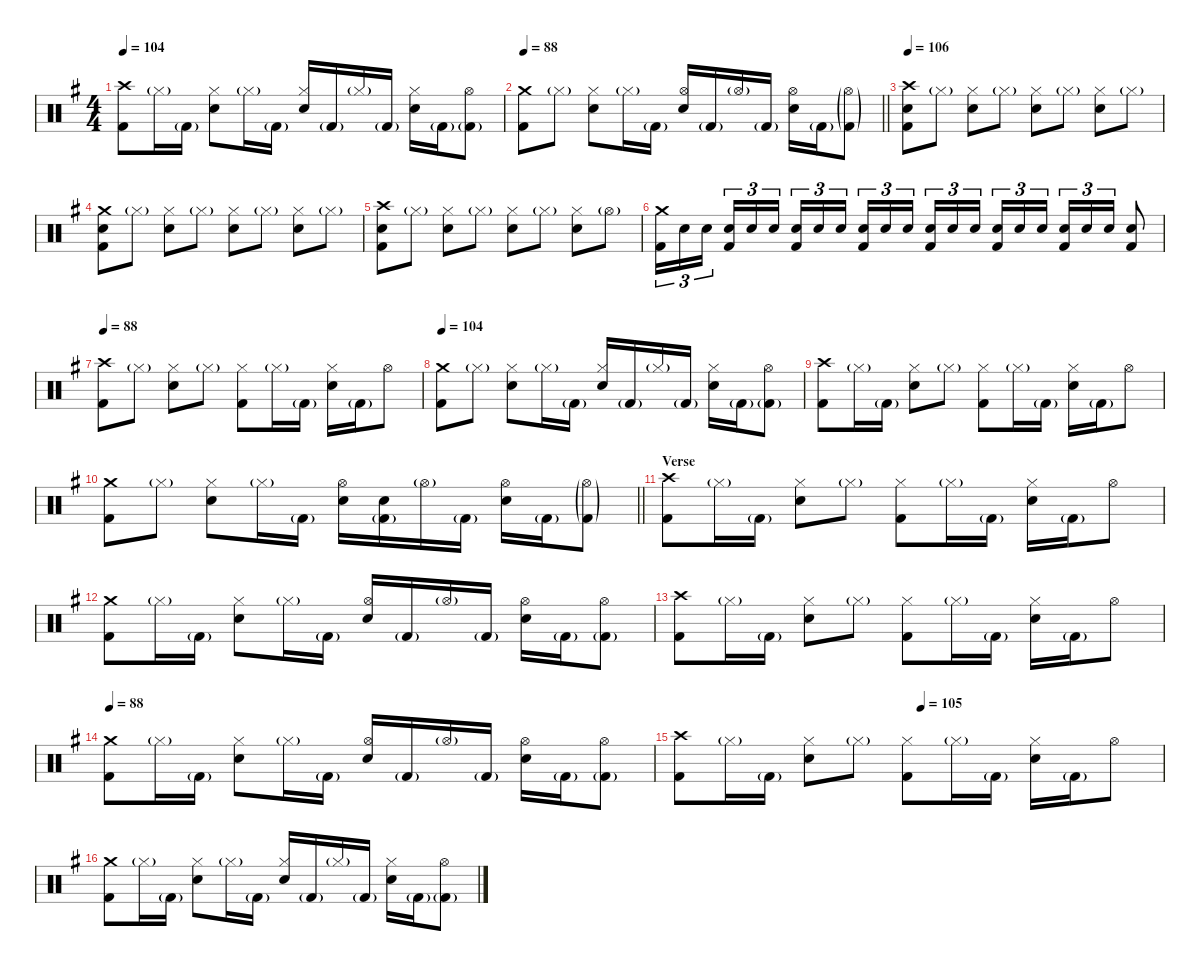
\defaultSystemsLayout 4
\hideDynamics
\bracketExtendMode nobrackets
\singleTrackTrackNamePolicy hidden
\multiTrackTrackNamePolicy hidden
\firstSystemTrackNameMode fullname
\firstSystemTrackNameOrientation horizontal
\otherSystemsTrackNameOrientation horizontal
\track ("Bill" "drm.") {instrument percussion}
\staff {score}
\articulation defaults
\ts (4 4)
\tempo 104
\clef neutral
\ks eminor
("Crash high (hit)"{acc forcenatural} "Kick (hit) 2"{acc forcenatural}).8{dy f beam Down} "Hi-Hat (closed)"{g acc forcenatural}.16{dy mf beam Down} "Kick (hit) 2"{g acc forcenatural}.16{beam Down} ("Hi-Hat (closed)"{acc forcenatural} "Snare (hit) 2"{acc forcenatural}).8{dy f beam Down} "Hi-Hat (closed)"{g acc forcenatural}.16{dy mf beam Down} "Kick (hit) 2"{g acc forcenatural}.16{beam Down} ("Hi-Hat (closed)"{acc forcenatural} "Snare (hit) 2"{acc forcenatural}).16{dy f beam Up} "Kick (hit) 2"{g acc forcenatural}.16{dy mf beam Up} "Hi-Hat (closed)"{g acc forcenatural}.16{beam Up} "Kick (hit) 2"{g acc forcenatural}.16{beam Up} ("Hi-Hat (closed)"{acc forcenatural} "Snare (hit) 2"{acc forcenatural}).16{dy f beam Down} "Kick (hit) 2"{g acc forcenatural}.16{dy mf beam Down} ("Hi-Hat (open)"{acc forcenatural} "Kick (hit) 2"{g acc forcenatural}).8{dy f beam Down} |
\tempo 88
\barLineRight lightlight
("Crash medium (hit)"{acc forcenatural} "Kick (hit) 2"{acc forcenatural}).8{beam Down} "Hi-Hat (closed)"{g acc forcenatural}.8{dy mf beam Down} ("Hi-Hat (closed)"{acc forcenatural} "Snare (hit) 2"{acc forcenatural}).8{dy f beam Down} "Hi-Hat (closed)"{g acc forcenatural}.16{dy mf beam Down} "Kick (hit) 2"{g acc forcenatural}.16{beam Down} ("Hi-Hat (open)"{acc forcenatural} "Snare (hit) 2"{acc forcenatural}).16{dy f beam Up} "Kick (hit) 2"{g acc forcenatural}.16{dy mf beam Up} "Hi-Hat (open)"{g acc forcenatural}.16{beam Up} "Kick (hit) 2"{g acc forcenatural}.16{beam Up} ("Hi-Hat (open)"{acc forcenatural} "Snare (hit) 2"{acc forcenatural}).16{dy f beam Down} "Kick (hit) 2"{g acc forcenatural}.16{dy mf beam Down} ("Hi-Hat (open)"{g acc forcenatural} "Kick (hit) 2"{g acc forcenatural}).8{beam Down} |
\section ("" "")
\tempo 106
("Crash high (hit)"{acc forcenatural} "Snare (hit) 2"{acc forcenatural} "Kick (hit) 2"{acc forcenatural}).8{dy f beam Down} "Hi-Hat (closed)"{g acc forcenatural}.8{dy mf beam Down} ("Hi-Hat (closed)"{acc forcenatural} "Snare (hit) 2"{acc forcenatural}).8{dy f beam Down} "Hi-Hat (closed)"{g acc forcenatural}.8{dy mf beam Down} ("Hi-Hat (closed)"{acc forcenatural} "Snare (hit) 2"{acc forcenatural}).8{dy f beam Down} "Hi-Hat (closed)"{g acc forcenatural}.8{dy mf beam Down} ("Hi-Hat (closed)"{acc forcenatural} "Snare (hit) 2"{acc forcenatural}).8{dy f beam Down} "Hi-Hat (closed)"{g acc forcenatural}.8{dy mf beam Down} |
("Crash medium (hit)"{acc forcenatural} "Snare (hit) 2"{acc forcenatural} "Kick (hit) 2"{acc forcenatural}).8{dy f beam Down} "Hi-Hat (closed)"{g acc forcenatural}.8{dy mf beam Down} ("Hi-Hat (closed)"{acc forcenatural} "Snare (hit) 2"{acc forcenatural}).8{dy f beam Down} "Hi-Hat (closed)"{g acc forcenatural}.8{dy mf beam Down} ("Hi-Hat (closed)"{acc forcenatural} "Snare (hit) 2"{acc forcenatural}).8{dy f beam Down} "Hi-Hat (closed)"{g acc forcenatural}.8{dy mf beam Down} ("Hi-Hat (closed)"{acc forcenatural} "Snare (hit) 2"{acc forcenatural}).8{dy f beam Down} "Hi-Hat (closed)"{g acc forcenatural}.8{dy mf beam Down} |
("Crash high (hit)"{acc forcenatural} "Snare (hit) 2"{acc forcenatural} "Kick (hit) 2"{acc forcenatural}).8{dy f beam Down} "Hi-Hat (closed)"{g acc forcenatural}.8{dy mf beam Down} ("Hi-Hat (closed)"{acc forcenatural} "Snare (hit) 2"{acc forcenatural}).8{dy f beam Down} "Hi-Hat (closed)"{g acc forcenatural}.8{dy mf beam Down} ("Hi-Hat (closed)"{acc forcenatural} "Snare (hit) 2"{acc forcenatural}).8{dy f beam Down} "Hi-Hat (closed)"{g acc forcenatural}.8{dy mf beam Down} ("Hi-Hat (closed)"{acc forcenatural} "Snare (hit) 2"{acc forcenatural}).8{dy f beam Down} "Hi-Hat (open)"{g acc forcenatural}.8{dy mf beam Down} |
("Crash medium (hit)"{acc forcenatural} "Kick (hit) 2"{acc forcenatural}).16{tu (3 2) dy f beam Down} "Snare (hit) 2"{acc forcenatural}.16{tu (3 2) dy p beam Down} "Snare (hit) 2"{acc forcenatural}.16{tu (3 2) beam Down} ("Snare (hit) 2"{acc forcenatural} "Kick (hit) 2"{acc forcenatural}).16{tu (3 2) dy mp beam Up} "Snare (hit) 2"{acc forcenatural}.16{tu (3 2) dy p beam Up} "Snare (hit) 2"{acc forcenatural}.16{tu (3 2) beam Up} ("Snare (hit) 2"{acc forcenatural} "Kick (hit) 2"{acc forcenatural}).16{tu (3 2) dy mf beam Up} "Snare (hit) 2"{acc forcenatural}.16{tu (3 2) dy p beam Up} "Snare (hit) 2"{acc forcenatural}.16{tu (3 2) beam Up} ("Snare (hit) 2"{acc forcenatural} "Kick (hit) 2"{acc forcenatural}).16{tu (3 2) dy mf beam Up} "Snare (hit) 2"{acc forcenatural}.16{tu (3 2) dy p beam Up} "Snare (hit) 2"{acc forcenatural}.16{tu (3 2) dy mp beam Up} ("Snare (hit) 2"{acc forcenatural} "Kick (hit) 2"{acc forcenatural}).16{tu (3 2) dy f beam Up} "Snare (hit) 2"{acc forcenatural}.16{tu (3 2) dy p beam Up} "Snare (hit) 2"{acc forcenatural}.16{tu (3 2) dy mp beam Up} ("Snare (hit) 2"{acc forcenatural} "Kick (hit) 2"{acc forcenatural}).16{tu (3 2) dy f beam Up} "Snare (hit) 2"{acc forcenatural}.16{tu (3 2) dy mp beam Up} "Snare (hit) 2"{acc forcenatural}.16{tu (3 2) dy mf beam Up} ("Snare (hit) 2"{acc forcenatural} "Kick (hit) 2"{acc forcenatural}).16{tu (3 2) dy ff beam Up} "Snare (hit) 2"{acc forcenatural}.16{tu (3 2) dy mf beam Up} "Snare (hit) 2"{acc forcenatural}.16{tu (3 2) dy f beam Up} ("Snare (hit) 2"{acc forcenatural} "Kick (hit) 2"{acc forcenatural}).8{dy ff beam Up} |
\tempo 88
("Crash high (hit)"{acc forcenatural} "Kick (hit) 2"{acc forcenatural}).8{dy f beam Down} "Hi-Hat (closed)"{g acc forcenatural}.8{dy mf beam Down} ("Hi-Hat (closed)"{acc forcenatural} "Snare (hit) 2"{acc forcenatural}).8{dy f beam Down} "Hi-Hat (closed)"{g acc forcenatural}.8{dy mf beam Down} ("Hi-Hat (closed)"{acc forcenatural} "Kick (hit) 2"{acc forcenatural}).8{dy f beam Down} "Hi-Hat (closed)"{g acc forcenatural}.16{dy mf beam Down} "Kick (hit) 2"{g acc forcenatural}.16{beam Down} ("Hi-Hat (closed)"{acc forcenatural} "Snare (hit) 2"{acc forcenatural}).16{dy f beam Down} "Kick (hit) 2"{g acc forcenatural}.16{dy mf beam Down} "Hi-Hat (open)"{acc forcenatural}.8{beam Down} |
\tempo 104
("Crash medium (hit)"{acc forcenatural} "Kick (hit) 2"{acc forcenatural}).8{dy f beam Down} "Hi-Hat (closed)"{g acc forcenatural}.8{dy mf beam Down} ("Hi-Hat (closed)"{acc forcenatural} "Snare (hit) 2"{acc forcenatural}).8{dy f beam Down} "Hi-Hat (closed)"{g acc forcenatural}.16{dy mf beam Down} "Kick (hit) 2"{g acc forcenatural}.16{beam Down} ("Hi-Hat (closed)"{acc forcenatural} "Snare (hit) 2"{acc forcenatural}).16{dy f beam Up} "Kick (hit) 2"{g acc forcenatural}.16{dy mf beam Up} "Hi-Hat (closed)"{g acc forcenatural}.16{beam Up} "Kick (hit) 2"{g acc forcenatural}.16{beam Up} ("Hi-Hat (closed)"{acc forcenatural} "Snare (hit) 2"{acc forcenatural}).16{dy f beam Down} "Kick (hit) 2"{g acc forcenatural}.16{dy mf beam Down} ("Hi-Hat (open)"{acc forcenatural} "Kick (hit) 2"{g acc forcenatural}).8{dy f beam Down} |
("Crash high (hit)"{acc forcenatural} "Kick (hit) 2"{acc forcenatural}).8{beam Down} "Hi-Hat (closed)"{g acc forcenatural}.16{dy mf beam Down} "Kick (hit) 2"{g acc forcenatural}.16{beam Down} ("Hi-Hat (closed)"{acc forcenatural} "Snare (hit) 2"{acc forcenatural}).8{dy f beam Down} "Hi-Hat (closed)"{g acc forcenatural}.8{dy mf beam Down} ("Hi-Hat (closed)"{acc forcenatural} "Kick (hit) 2"{acc forcenatural}).8{dy f beam Down} "Hi-Hat (closed)"{g acc forcenatural}.16{dy mf beam Down} "Kick (hit) 2"{g acc forcenatural}.16{beam Down} ("Hi-Hat (closed)"{acc forcenatural} "Snare (hit) 2"{acc forcenatural}).16{dy f beam Down} "Kick (hit) 2"{g acc forcenatural}.16{dy mf beam Down} "Hi-Hat (open)"{acc forcenatural}.8{dy f beam Down} |
\barLineRight lightlight
("Crash medium (hit)"{acc forcenatural} "Kick (hit) 2"{acc forcenatural}).8{beam Down} "Hi-Hat (closed)"{g acc forcenatural}.8{dy mf beam Down} ("Hi-Hat (closed)"{acc forcenatural} "Snare (hit) 2"{acc forcenatural}).8{dy f beam Down} "Hi-Hat (closed)"{g acc forcenatural}.16{dy mf beam Down} "Kick (hit) 2"{g acc forcenatural}.16{beam Down} ("Hi-Hat (open)"{acc forcenatural} "Snare (hit) 2"{acc forcenatural}).16{dy f beam Down} ("Snare (hit) 2"{acc forcenatural} "Kick (hit) 2"{g acc forcenatural}).16{beam Down} "Hi-Hat (open)"{g acc forcenatural}.16{dy mf beam Down} "Kick (hit) 2"{g acc forcenatural}.16{beam Down} ("Hi-Hat (open)"{acc forcenatural} "Snare (hit) 2"{acc forcenatural}).16{dy f beam Down} "Kick (hit) 2"{g acc forcenatural}.16{dy mf beam Down} ("Hi-Hat (open)"{g acc forcenatural} "Kick (hit) 2"{g acc forcenatural}).8{beam Down} |
\section ("" "Verse")
("Crash high (hit)"{acc forcenatural} "Kick (hit) 2"{acc forcenatural}).8{dy f beam Down} "Hi-Hat (closed)"{g acc forcenatural}.16{dy mf beam Down} "Kick (hit) 2"{g acc forcenatural}.16{beam Down} ("Hi-Hat (closed)"{acc forcenatural} "Snare (hit) 2"{acc forcenatural}).8{dy f beam Down} "Hi-Hat (closed)"{g acc forcenatural}.8{dy mf beam Down} ("Hi-Hat (closed)"{acc forcenatural} "Kick (hit) 2"{acc forcenatural}).8{dy f beam Down} "Hi-Hat (closed)"{g acc forcenatural}.16{dy mf beam Down} "Kick (hit) 2"{g acc forcenatural}.16{beam Down} ("Hi-Hat (closed)"{acc forcenatural} "Snare (hit) 2"{acc forcenatural}).16{dy f beam Down} "Kick (hit) 2"{g acc forcenatural}.16{dy mf beam Down} "Hi-Hat (open)"{acc forcenatural}.8{dy f beam Down} |
("Crash medium (hit)"{acc forcenatural} "Kick (hit) 2"{acc forcenatural}).8{beam Down} "Hi-Hat (closed)"{g acc forcenatural}.16{dy mf beam Down} "Kick (hit) 2"{g acc forcenatural}.16{beam Down} ("Hi-Hat (closed)"{acc forcenatural} "Snare (hit) 2"{acc forcenatural}).8{dy f beam Down} "Hi-Hat (closed)"{g acc forcenatural}.16{dy mf beam Down} "Kick (hit) 2"{g acc forcenatural}.16{beam Down} ("Hi-Hat (open)"{acc forcenatural} "Snare (hit) 2"{acc forcenatural}).16{dy f beam Up} "Kick (hit) 2"{g acc forcenatural}.16{dy mf beam Up} "Hi-Hat (open)"{g acc forcenatural}.16{dy f beam Up} "Kick (hit) 2"{g acc forcenatural}.16{dy mf beam Up} ("Hi-Hat (open)"{acc forcenatural} "Snare (hit) 2"{acc forcenatural}).16{dy f beam Down} "Kick (hit) 2"{g acc forcenatural}.16{dy mf beam Down} ("Hi-Hat (open)"{acc forcenatural} "Kick (hit) 2"{g acc forcenatural}).8{dy f beam Down} |
("Crash high (hit)"{acc forcenatural} "Kick (hit) 2"{acc forcenatural}).8{beam Down} "Hi-Hat (closed)"{g acc forcenatural}.16{dy mf beam Down} "Kick (hit) 2"{g acc forcenatural}.16{beam Down} ("Hi-Hat (closed)"{acc forcenatural} "Snare (hit) 2"{acc forcenatural}).8{dy f beam Down} "Hi-Hat (closed)"{g acc forcenatural}.8{dy mf beam Down} ("Hi-Hat (closed)"{acc forcenatural} "Kick (hit) 2"{acc forcenatural}).8{dy f beam Down} "Hi-Hat (closed)"{g acc forcenatural}.16{dy mf beam Down} "Kick (hit) 2"{g acc forcenatural}.16{beam Down} ("Hi-Hat (closed)"{acc forcenatural} "Snare (hit) 2"{acc forcenatural}).16{dy f beam Down} "Kick (hit) 2"{g acc forcenatural}.16{dy mf beam Down} "Hi-Hat (open)"{acc forcenatural}.8{dy f beam Down} |
\tempo 88
("Crash medium (hit)"{acc forcenatural} "Kick (hit) 2"{acc forcenatural}).8{beam Down} "Hi-Hat (closed)"{g acc forcenatural}.16{dy mf beam Down} "Kick (hit) 2"{g acc forcenatural}.16{beam Down} ("Hi-Hat (closed)"{acc forcenatural} "Snare (hit) 2"{acc forcenatural}).8{dy f beam Down} "Hi-Hat (closed)"{g acc forcenatural}.16{dy mf beam Down} "Kick (hit) 2"{g acc forcenatural}.16{beam Down} ("Hi-Hat (open)"{acc forcenatural} "Snare (hit) 2"{acc forcenatural}).16{dy f beam Up} "Kick (hit) 2"{g acc forcenatural}.16{dy mf beam Up} "Hi-Hat (open)"{g acc forcenatural}.16{dy f beam Up} "Kick (hit) 2"{g acc forcenatural}.16{dy mf beam Up} ("Hi-Hat (open)"{acc forcenatural} "Snare (hit) 2"{acc forcenatural}).16{dy f beam Down} "Kick (hit) 2"{g acc forcenatural}.16{dy mf beam Down} ("Hi-Hat (open)"{acc forcenatural} "Kick (hit) 2"{g acc forcenatural}).8{dy f beam Down} |
\tempo (105 0.5)
("Crash high (hit)"{acc forcenatural} "Kick (hit) 2"{acc forcenatural}).8{beam Down} "Hi-Hat (closed)"{g acc forcenatural}.16{dy mf beam Down} "Kick (hit) 2"{g acc forcenatural}.16{beam Down} ("Hi-Hat (closed)"{acc forcenatural} "Snare (hit) 2"{acc forcenatural}).8{dy f beam Down} "Hi-Hat (closed)"{g acc forcenatural}.8{dy mf beam Down} ("Hi-Hat (closed)"{acc forcenatural} "Kick (hit) 2"{acc forcenatural}).8{dy f beam Down} "Hi-Hat (closed)"{g acc forcenatural}.16{dy mf beam Down} "Kick (hit) 2"{g acc forcenatural}.16{beam Down} ("Hi-Hat (closed)"{acc forcenatural} "Snare (hit) 2"{acc forcenatural}).16{dy f beam Down} "Kick (hit) 2"{g acc forcenatural}.16{dy mf beam Down} "Hi-Hat (open)"{acc forcenatural}.8{dy f beam Down} |
("Crash medium (hit)"{acc forcenatural} "Kick (hit) 2"{acc forcenatural}).8{beam Down} "Hi-Hat (closed)"{g acc forcenatural}.16{dy mf beam Down} "Kick (hit) 2"{g acc forcenatural}.16{beam Down} ("Hi-Hat (closed)"{acc forcenatural} "Snare (hit) 2"{acc forcenatural}).8{dy f beam Down} "Hi-Hat (closed)"{g acc forcenatural}.16{dy mf beam Down} "Kick (hit) 2"{g acc forcenatural}.16{beam Down} ("Hi-Hat (closed)"{acc forcenatural} "Snare (hit) 2"{acc forcenatural}).16{dy f beam Up} "Kick (hit) 2"{g acc forcenatural}.16{dy mf beam Up} "Hi-Hat (closed)"{g acc forcenatural}.16{beam Up} "Kick (hit) 2"{g acc forcenatural}.16{beam Up} ("Hi-Hat (closed)"{acc forcenatural} "Snare (hit) 2"{acc forcenatural}).16{dy f beam Down} "Kick (hit) 2"{g acc forcenatural}.16{dy mf beam Down} ("Hi-Hat (open)"{acc forcenatural} "Kick (hit) 2"{g acc forcenatural}).8{dy f beam Down}
